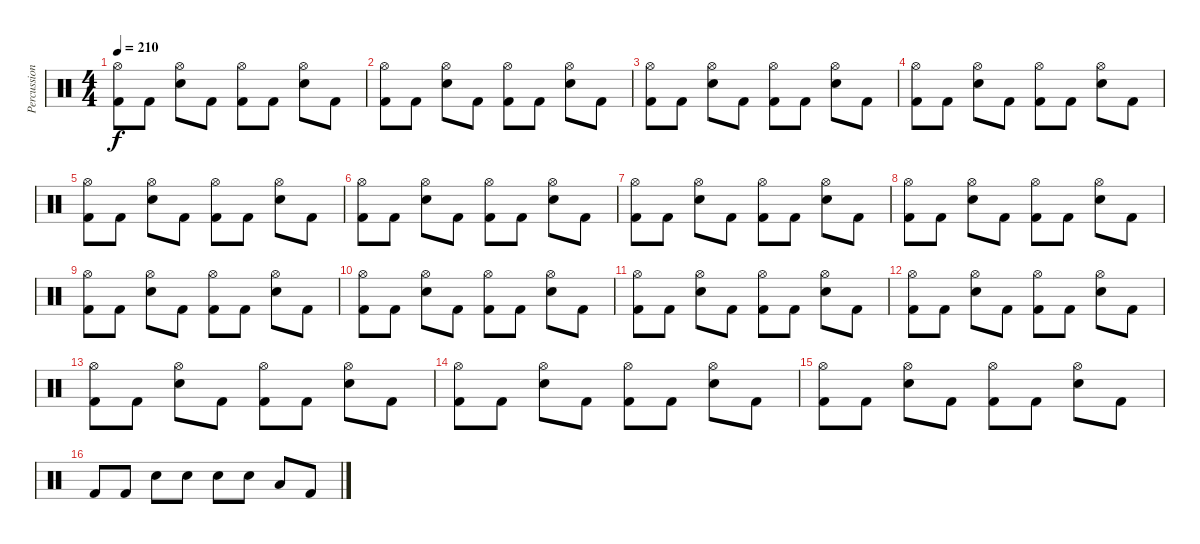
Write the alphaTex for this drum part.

\track ("Percussion" "Percussion") {instrument percussion}
\staff {score}
\articulation defaults
\ts (4 4)
\tempo 210
\clef neutral
\ks c
("Kick (hit) 2" "Hi-Hat (open)").8{dy f} "Kick (hit) 2".8 ("Snare (hit) 2" "Hi-Hat (open)").8 "Kick (hit) 2".8 ("Kick (hit) 2" "Hi-Hat (open)").8 "Kick (hit) 2".8 ("Snare (hit) 2" "Hi-Hat (open)").8 "Kick (hit) 2".8 |
("Kick (hit) 2" "Hi-Hat (open)").8 "Kick (hit) 2".8 ("Snare (hit) 2" "Hi-Hat (open)").8 "Kick (hit) 2".8 ("Kick (hit) 2" "Hi-Hat (open)").8 "Kick (hit) 2".8 ("Snare (hit) 2" "Hi-Hat (open)").8 "Kick (hit) 2".8 |
("Kick (hit) 2" "Hi-Hat (open)").8 "Kick (hit) 2".8 ("Snare (hit) 2" "Hi-Hat (open)").8 "Kick (hit) 2".8 ("Kick (hit) 2" "Hi-Hat (open)").8 "Kick (hit) 2".8 ("Snare (hit) 2" "Hi-Hat (open)").8 "Kick (hit) 2".8 |
("Kick (hit) 2" "Hi-Hat (open)").8 "Kick (hit) 2".8 ("Snare (hit) 2" "Hi-Hat (open)").8 "Kick (hit) 2".8 ("Kick (hit) 2" "Hi-Hat (open)").8 "Kick (hit) 2".8 ("Snare (hit) 2" "Hi-Hat (open)").8 "Kick (hit) 2".8 |
("Kick (hit) 2" "Hi-Hat (open)").8 "Kick (hit) 2".8 ("Snare (hit) 2" "Hi-Hat (open)").8 "Kick (hit) 2".8 ("Kick (hit) 2" "Hi-Hat (open)").8 "Kick (hit) 2".8 ("Snare (hit) 2" "Hi-Hat (open)").8 "Kick (hit) 2".8 |
("Kick (hit) 2" "Hi-Hat (open)").8 "Kick (hit) 2".8 ("Snare (hit) 2" "Hi-Hat (open)").8 "Kick (hit) 2".8 ("Kick (hit) 2" "Hi-Hat (open)").8 "Kick (hit) 2".8 ("Snare (hit) 2" "Hi-Hat (open)").8 "Kick (hit) 2".8 |
("Kick (hit) 2" "Hi-Hat (open)").8 "Kick (hit) 2".8 ("Snare (hit) 2" "Hi-Hat (open)").8 "Kick (hit) 2".8 ("Kick (hit) 2" "Hi-Hat (open)").8 "Kick (hit) 2".8 ("Snare (hit) 2" "Hi-Hat (open)").8 "Kick (hit) 2".8 |
("Kick (hit) 2" "Hi-Hat (open)").8 "Kick (hit) 2".8 ("Snare (hit) 2" "Hi-Hat (open)").8 "Kick (hit) 2".8 ("Kick (hit) 2" "Hi-Hat (open)").8 "Kick (hit) 2".8 ("Snare (hit) 2" "Hi-Hat (open)").8 "Kick (hit) 2".8 |
("Kick (hit) 2" "Hi-Hat (open)").8 "Kick (hit) 2".8 ("Snare (hit) 2" "Hi-Hat (open)").8 "Kick (hit) 2".8 ("Kick (hit) 2" "Hi-Hat (open)").8 "Kick (hit) 2".8 ("Snare (hit) 2" "Hi-Hat (open)").8 "Kick (hit) 2".8 |
("Kick (hit) 2" "Hi-Hat (open)").8 "Kick (hit) 2".8 ("Snare (hit) 2" "Hi-Hat (open)").8 "Kick (hit) 2".8 ("Kick (hit) 2" "Hi-Hat (open)").8 "Kick (hit) 2".8 ("Snare (hit) 2" "Hi-Hat (open)").8 "Kick (hit) 2".8 |
("Kick (hit) 2" "Hi-Hat (open)").8 "Kick (hit) 2".8 ("Snare (hit) 2" "Hi-Hat (open)").8 "Kick (hit) 2".8 ("Kick (hit) 2" "Hi-Hat (open)").8 "Kick (hit) 2".8 ("Snare (hit) 2" "Hi-Hat (open)").8 "Kick (hit) 2".8 |
("Kick (hit) 2" "Hi-Hat (open)").8 "Kick (hit) 2".8 ("Snare (hit) 2" "Hi-Hat (open)").8 "Kick (hit) 2".8 ("Kick (hit) 2" "Hi-Hat (open)").8 "Kick (hit) 2".8 ("Snare (hit) 2" "Hi-Hat (open)").8 "Kick (hit) 2".8 |
("Kick (hit) 2" "Hi-Hat (open)").8 "Kick (hit) 2".8 ("Snare (hit) 2" "Hi-Hat (open)").8 "Kick (hit) 2".8 ("Kick (hit) 2" "Hi-Hat (open)").8 "Kick (hit) 2".8 ("Snare (hit) 2" "Hi-Hat (open)").8 "Kick (hit) 2".8 |
("Kick (hit) 2" "Hi-Hat (open)").8 "Kick (hit) 2".8 ("Snare (hit) 2" "Hi-Hat (open)").8 "Kick (hit) 2".8 ("Kick (hit) 2" "Hi-Hat (open)").8 "Kick (hit) 2".8 ("Snare (hit) 2" "Hi-Hat (open)").8 "Kick (hit) 2".8 |
("Kick (hit) 2" "Hi-Hat (open)").8 "Kick (hit) 2".8 ("Snare (hit) 2" "Hi-Hat (open)").8 "Kick (hit) 2".8 ("Kick (hit) 2" "Hi-Hat (open)").8 "Kick (hit) 2".8 ("Snare (hit) 2" "Hi-Hat (open)").8 "Kick (hit) 2".8 |
"Kick (hit) 2".8 "Kick (hit) 2".8 "Snare (hit) 2".8 "Snare (hit) 2".8 "Electric Snare (hit)".8 "Electric Snare (hit)".8 "Low Floor Tom (hit)".8 "Kick (hit) 2".8
